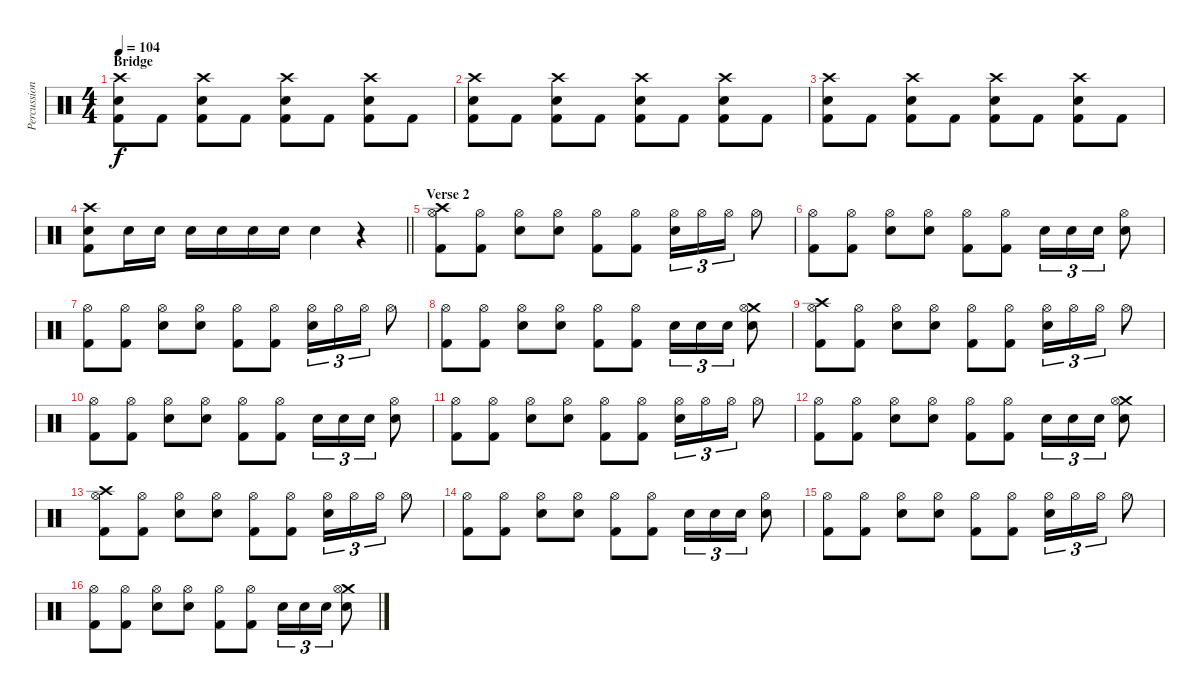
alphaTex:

\track ("Percussion" "Percussion") {instrument percussion}
\staff {score}
\articulation defaults
\ts (4 4)
\section ("" "Bridge")
\tempo 104
\clef neutral
\ks c
("Crash high (hit)" "Snare (hit) 2" "Kick (hit) 2").8{dy f} "Kick (hit) 2".8 ("Crash high (hit)" "Snare (hit) 2" "Kick (hit) 2").8 "Kick (hit) 2".8 ("Crash high (hit)" "Snare (hit) 2" "Kick (hit) 2").8 "Kick (hit) 2".8 ("Crash high (hit)" "Snare (hit) 2" "Kick (hit) 2").8 "Kick (hit) 2".8 |
("Crash high (hit)" "Snare (hit) 2" "Kick (hit) 2").8 "Kick (hit) 2".8 ("Crash high (hit)" "Snare (hit) 2" "Kick (hit) 2").8 "Kick (hit) 2".8 ("Crash high (hit)" "Snare (hit) 2" "Kick (hit) 2").8 "Kick (hit) 2".8 ("Crash high (hit)" "Snare (hit) 2" "Kick (hit) 2").8 "Kick (hit) 2".8 |
("Crash high (hit)" "Snare (hit) 2" "Kick (hit) 2").8 "Kick (hit) 2".8 ("Crash high (hit)" "Snare (hit) 2" "Kick (hit) 2").8 "Kick (hit) 2".8 ("Crash high (hit)" "Snare (hit) 2" "Kick (hit) 2").8 "Kick (hit) 2".8 ("Crash high (hit)" "Snare (hit) 2" "Kick (hit) 2").8 "Kick (hit) 2".8 |
\barLineRight lightlight
("Crash high (hit)" "Snare (hit) 2" "Kick (hit) 2").8 "Snare (hit) 2".16 "Snare (hit) 2".16 "Snare (hit) 2".16 "Snare (hit) 2".16 "Snare (hit) 2".16 "Snare (hit) 2".16 "Snare (hit) 2".4 r.4 |
\section ("" "Verse 2")
("Crash high (hit)" "Hi-Hat (open)" "Kick (hit) 2").8 ("Hi-Hat (open)" "Kick (hit) 2").8 ("Hi-Hat (open)" "Snare (hit) 2").8 ("Hi-Hat (open)" "Snare (hit) 2").8 ("Hi-Hat (open)" "Kick (hit) 2").8 ("Hi-Hat (open)" "Kick (hit) 2").8 ("Hi-Hat (open)" "Snare (hit) 2").16{tu (3 2)} "Hi-Hat (open)".16{tu (3 2)} "Hi-Hat (open)".16{tu (3 2)} "Hi-Hat (open)".8 |
("Hi-Hat (open)" "Kick (hit) 2").8 ("Hi-Hat (open)" "Kick (hit) 2").8 ("Hi-Hat (open)" "Snare (hit) 2").8 ("Hi-Hat (open)" "Snare (hit) 2").8 ("Hi-Hat (open)" "Kick (hit) 2").8 ("Hi-Hat (open)" "Kick (hit) 2").8 "Snare (hit) 2".16{tu (3 2)} "Snare (hit) 2".16{tu (3 2)} "Snare (hit) 2".16{tu (3 2)} ("Hi-Hat (open)" "Snare (hit) 2").8 |
("Hi-Hat (open)" "Kick (hit) 2").8 ("Hi-Hat (open)" "Kick (hit) 2").8 ("Hi-Hat (open)" "Snare (hit) 2").8 ("Hi-Hat (open)" "Snare (hit) 2").8 ("Hi-Hat (open)" "Kick (hit) 2").8 ("Hi-Hat (open)" "Kick (hit) 2").8 ("Hi-Hat (open)" "Snare (hit) 2").16{tu (3 2)} "Hi-Hat (open)".16{tu (3 2)} "Hi-Hat (open)".16{tu (3 2)} "Hi-Hat (open)".8 |
("Hi-Hat (open)" "Kick (hit) 2").8 ("Hi-Hat (open)" "Kick (hit) 2").8 ("Hi-Hat (open)" "Snare (hit) 2").8 ("Hi-Hat (open)" "Snare (hit) 2").8 ("Hi-Hat (open)" "Kick (hit) 2").8 ("Hi-Hat (open)" "Kick (hit) 2").8 "Snare (hit) 2".16{tu (3 2)} "Snare (hit) 2".16{tu (3 2)} "Snare (hit) 2".16{tu (3 2)} ("Crash medium (hit)" "Hi-Hat (open)" "Snare (hit) 2").8 |
("Crash high (hit)" "Hi-Hat (open)" "Kick (hit) 2").8 ("Hi-Hat (open)" "Kick (hit) 2").8 ("Hi-Hat (open)" "Snare (hit) 2").8 ("Hi-Hat (open)" "Snare (hit) 2").8 ("Hi-Hat (open)" "Kick (hit) 2").8 ("Hi-Hat (open)" "Kick (hit) 2").8 ("Hi-Hat (open)" "Snare (hit) 2").16{tu (3 2)} "Hi-Hat (open)".16{tu (3 2)} "Hi-Hat (open)".16{tu (3 2)} "Hi-Hat (open)".8 |
("Hi-Hat (open)" "Kick (hit) 2").8 ("Hi-Hat (open)" "Kick (hit) 2").8 ("Hi-Hat (open)" "Snare (hit) 2").8 ("Hi-Hat (open)" "Snare (hit) 2").8 ("Hi-Hat (open)" "Kick (hit) 2").8 ("Hi-Hat (open)" "Kick (hit) 2").8 "Snare (hit) 2".16{tu (3 2)} "Snare (hit) 2".16{tu (3 2)} "Snare (hit) 2".16{tu (3 2)} ("Hi-Hat (open)" "Snare (hit) 2").8 |
("Hi-Hat (open)" "Kick (hit) 2").8 ("Hi-Hat (open)" "Kick (hit) 2").8 ("Hi-Hat (open)" "Snare (hit) 2").8 ("Hi-Hat (open)" "Snare (hit) 2").8 ("Hi-Hat (open)" "Kick (hit) 2").8 ("Hi-Hat (open)" "Kick (hit) 2").8 ("Hi-Hat (open)" "Snare (hit) 2").16{tu (3 2)} "Hi-Hat (open)".16{tu (3 2)} "Hi-Hat (open)".16{tu (3 2)} "Hi-Hat (open)".8 |
("Hi-Hat (open)" "Kick (hit) 2").8 ("Hi-Hat (open)" "Kick (hit) 2").8 ("Hi-Hat (open)" "Snare (hit) 2").8 ("Hi-Hat (open)" "Snare (hit) 2").8 ("Hi-Hat (open)" "Kick (hit) 2").8 ("Hi-Hat (open)" "Kick (hit) 2").8 "Snare (hit) 2".16{tu (3 2)} "Snare (hit) 2".16{tu (3 2)} "Snare (hit) 2".16{tu (3 2)} ("Crash medium (hit)" "Hi-Hat (open)" "Snare (hit) 2").8 |
("Crash high (hit)" "Hi-Hat (open)" "Kick (hit) 2").8 ("Hi-Hat (open)" "Kick (hit) 2").8 ("Hi-Hat (open)" "Snare (hit) 2").8 ("Hi-Hat (open)" "Snare (hit) 2").8 ("Hi-Hat (open)" "Kick (hit) 2").8 ("Hi-Hat (open)" "Kick (hit) 2").8 ("Hi-Hat (open)" "Snare (hit) 2").16{tu (3 2)} "Hi-Hat (open)".16{tu (3 2)} "Hi-Hat (open)".16{tu (3 2)} "Hi-Hat (open)".8 |
("Hi-Hat (open)" "Kick (hit) 2").8 ("Hi-Hat (open)" "Kick (hit) 2").8 ("Hi-Hat (open)" "Snare (hit) 2").8 ("Hi-Hat (open)" "Snare (hit) 2").8 ("Hi-Hat (open)" "Kick (hit) 2").8 ("Hi-Hat (open)" "Kick (hit) 2").8 "Snare (hit) 2".16{tu (3 2)} "Snare (hit) 2".16{tu (3 2)} "Snare (hit) 2".16{tu (3 2)} ("Hi-Hat (open)" "Snare (hit) 2").8 |
("Hi-Hat (open)" "Kick (hit) 2").8 ("Hi-Hat (open)" "Kick (hit) 2").8 ("Hi-Hat (open)" "Snare (hit) 2").8 ("Hi-Hat (open)" "Snare (hit) 2").8 ("Hi-Hat (open)" "Kick (hit) 2").8 ("Hi-Hat (open)" "Kick (hit) 2").8 ("Hi-Hat (open)" "Snare (hit) 2").16{tu (3 2)} "Hi-Hat (open)".16{tu (3 2)} "Hi-Hat (open)".16{tu (3 2)} "Hi-Hat (open)".8 |
("Hi-Hat (open)" "Kick (hit) 2").8 ("Hi-Hat (open)" "Kick (hit) 2").8 ("Hi-Hat (open)" "Snare (hit) 2").8 ("Hi-Hat (open)" "Snare (hit) 2").8 ("Hi-Hat (open)" "Kick (hit) 2").8 ("Hi-Hat (open)" "Kick (hit) 2").8 "Snare (hit) 2".16{tu (3 2)} "Snare (hit) 2".16{tu (3 2)} "Snare (hit) 2".16{tu (3 2)} ("Crash medium (hit)" "Hi-Hat (open)" "Snare (hit) 2").8
